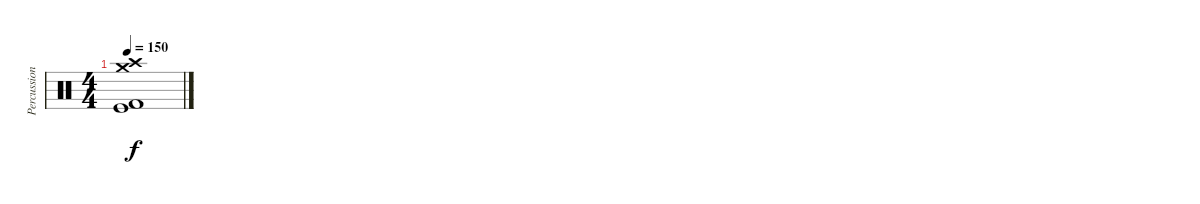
\track ("Percussion" "Percussion") {instrument percussion}
\staff {score}
\articulation defaults
\ts (4 4)
\tempo 150
\clef neutral
\ks c
("Crash medium (hit)" "Crash high (hit)" "Kick (hit) 2" "Kick (hit)").1{dy f}
